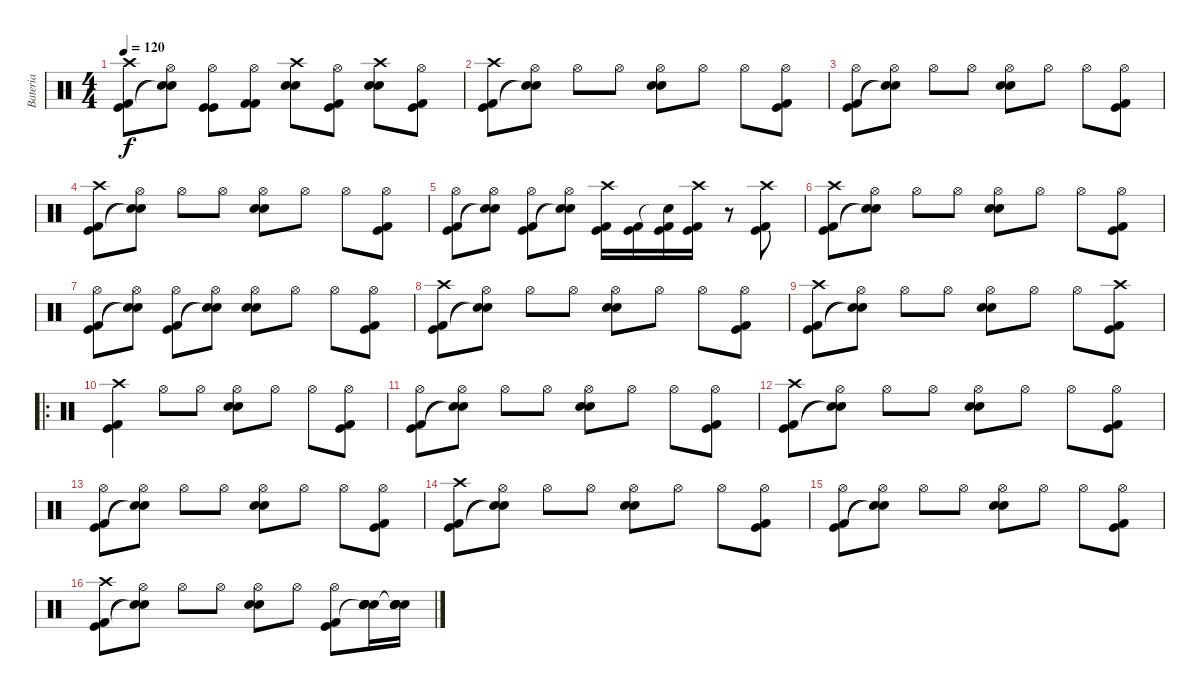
\track ("Bateria" "Bateria") {instrument percussion}
\staff {score}
\articulation defaults
\ts (4 4)
\tempo 120
\clef neutral
\ks c
("Crash high (hit)" "Kick (hit)" "Kick (hit) 2").8{dy f} ("Hi-Hat (open)" "Snare (hit)"{t} "Snare (hit)"{t}).8 ("Hi-Hat (open)" "Kick (hit)" "Kick (hit)").8 ("Hi-Hat (open)" "Kick (hit) 2" "Kick (hit) 2").8 ("Crash high (hit)" "Electric Snare (hit)" "Snare (hit) 2").8 ("Hi-Hat (open)" "Kick (hit)" "Kick (hit) 2").8 ("Crash high (hit)" "Electric Snare (hit)" "Snare (hit) 2").8 ("Hi-Hat (open)" "Kick (hit)" "Kick (hit) 2").8 |
("Crash high (hit)" "Kick (hit)" "Kick (hit) 2").8 ("Hi-Hat (open)" "Snare (hit)"{t} "Snare (hit)"{t}).8 "Hi-Hat (open)".8 "Hi-Hat (open)".8 ("Hi-Hat (open)" "Electric Snare (hit)" "Snare (hit) 2").8 "Hi-Hat (open)".8 "Hi-Hat (open)".8 ("Hi-Hat (open)" "Kick (hit)" "Kick (hit) 2").8 |
("Hi-Hat (open)" "Kick (hit)" "Kick (hit) 2").8 ("Hi-Hat (open)" "Snare (hit)"{t} "Snare (hit)"{t}).8 "Hi-Hat (open)".8 "Hi-Hat (open)".8 ("Hi-Hat (open)" "Electric Snare (hit)" "Snare (hit) 2").8 "Hi-Hat (open)".8 "Hi-Hat (open)".8 ("Hi-Hat (open)" "Kick (hit)" "Kick (hit) 2").8 |
("Crash high (hit)" "Kick (hit)" "Kick (hit) 2").8 ("Hi-Hat (open)" "Snare (hit)"{t} "Snare (hit)"{t}).8 "Hi-Hat (open)".8 "Hi-Hat (open)".8 ("Hi-Hat (open)" "Electric Snare (hit)" "Snare (hit) 2").8 "Hi-Hat (open)".8 "Hi-Hat (open)".8 ("Hi-Hat (open)" "Kick (hit)" "Kick (hit) 2").8 |
("Hi-Hat (open)" "Kick (hit) 2" "Kick (hit)").8 ("Hi-Hat (open)" "Snare (hit)"{t} "Snare (hit)"{t}).8 ("Hi-Hat (open)" "Kick (hit) 2" "Kick (hit)").8 ("Hi-Hat (open)" "Snare (hit)"{t} "Snare (hit)"{t}).8 ("Crash high (hit)" "Kick (hit) 2" "Kick (hit)").16 ("Kick (hit) 2" "Kick (hit)").16 ("Snare (hit)"{t} "Kick (hit) 2" "Kick (hit)").16 ("Crash high (hit)" "Kick (hit) 2" "Kick (hit)").16 r.8 ("Crash high (hit)" "Kick (hit)" "Kick (hit) 2").8 |
("Crash high (hit)" "Kick (hit)" "Kick (hit) 2").8 ("Hi-Hat (open)" "Snare (hit)"{t} "Snare (hit)"{t}).8 "Hi-Hat (open)".8 "Hi-Hat (open)".8 ("Hi-Hat (open)" "Electric Snare (hit)" "Snare (hit) 2").8 "Hi-Hat (open)".8 "Hi-Hat (open)".8 ("Hi-Hat (open)" "Kick (hit)" "Kick (hit) 2").8 |
("Hi-Hat (open)" "Kick (hit)" "Kick (hit) 2").8 ("Hi-Hat (open)" "Snare (hit)"{t} "Snare (hit)"{t}).8 ("Hi-Hat (open)" "Kick (hit)" "Kick (hit) 2").8 ("Hi-Hat (open)" "Snare (hit)"{t} "Snare (hit)"{t}).8 ("Hi-Hat (open)" "Electric Snare (hit)" "Snare (hit) 2").8 "Hi-Hat (open)".8 "Hi-Hat (open)".8 ("Hi-Hat (open)" "Kick (hit)" "Kick (hit) 2").8 |
("Crash high (hit)" "Kick (hit)" "Kick (hit) 2").8 ("Hi-Hat (open)" "Snare (hit)"{t} "Snare (hit)"{t}).8 "Hi-Hat (open)".8 "Hi-Hat (open)".8 ("Hi-Hat (open)" "Electric Snare (hit)" "Snare (hit) 2").8 "Hi-Hat (open)".8 "Hi-Hat (open)".8 ("Hi-Hat (open)" "Kick (hit)" "Kick (hit) 2").8 |
("Crash high (hit)" "Kick (hit)" "Kick (hit) 2").8 ("Hi-Hat (open)" "Snare (hit)"{t} "Snare (hit)"{t}).8 "Hi-Hat (open)".8 "Hi-Hat (open)".8 ("Hi-Hat (open)" "Electric Snare (hit)" "Snare (hit) 2").8 "Hi-Hat (open)".8 "Hi-Hat (open)".8 ("Crash high (hit)" "Kick (hit)" "Kick (hit) 2").8 |
\ro
("Crash high (hit)" "Kick (hit) 2" "Kick (hit)").4 "Hi-Hat (open)".8 "Hi-Hat (open)".8 ("Hi-Hat (open)" "Electric Snare (hit)" "Snare (hit) 2").8 "Hi-Hat (open)".8 "Hi-Hat (open)".8 ("Hi-Hat (open)" "Kick (hit)" "Kick (hit) 2").8 |
("Hi-Hat (open)" "Kick (hit) 2" "Kick (hit)").8 ("Hi-Hat (open)" "Snare (hit)"{t} "Snare (hit)"{t}).8 "Hi-Hat (open)".8 "Hi-Hat (open)".8 ("Hi-Hat (open)" "Electric Snare (hit)" "Snare (hit) 2").8 "Hi-Hat (open)".8 "Hi-Hat (open)".8 ("Hi-Hat (open)" "Kick (hit)" "Kick (hit) 2").8 |
("Crash high (hit)" "Kick (hit) 2" "Kick (hit)").8 ("Hi-Hat (open)" "Snare (hit)"{t} "Snare (hit)"{t}).8 "Hi-Hat (open)".8 "Hi-Hat (open)".8 ("Hi-Hat (open)" "Electric Snare (hit)" "Snare (hit) 2").8 "Hi-Hat (open)".8 "Hi-Hat (open)".8 ("Hi-Hat (open)" "Kick (hit)" "Kick (hit) 2").8 |
("Hi-Hat (open)" "Kick (hit) 2" "Kick (hit)").8 ("Hi-Hat (open)" "Snare (hit)"{t} "Snare (hit)"{t}).8 "Hi-Hat (open)".8 "Hi-Hat (open)".8 ("Hi-Hat (open)" "Electric Snare (hit)" "Snare (hit) 2").8 "Hi-Hat (open)".8 "Hi-Hat (open)".8 ("Hi-Hat (open)" "Kick (hit)" "Kick (hit) 2").8 |
("Crash high (hit)" "Kick (hit) 2" "Kick (hit)").8 ("Hi-Hat (open)" "Snare (hit)"{t} "Snare (hit)"{t}).8 "Hi-Hat (open)".8 "Hi-Hat (open)".8 ("Hi-Hat (open)" "Electric Snare (hit)" "Snare (hit) 2").8 "Hi-Hat (open)".8 "Hi-Hat (open)".8 ("Hi-Hat (open)" "Kick (hit)" "Kick (hit) 2").8 |
("Hi-Hat (open)" "Kick (hit) 2" "Kick (hit)").8 ("Hi-Hat (open)" "Snare (hit)"{t} "Snare (hit)"{t}).8 "Hi-Hat (open)".8 "Hi-Hat (open)".8 ("Hi-Hat (open)" "Electric Snare (hit)" "Snare (hit) 2").8 "Hi-Hat (open)".8 "Hi-Hat (open)".8 ("Hi-Hat (open)" "Kick (hit)" "Kick (hit) 2").8 |
("Crash high (hit)" "Kick (hit)" "Kick (hit) 2").8 ("Hi-Hat (open)" "Snare (hit)"{t} "Snare (hit)"{t}).8 "Hi-Hat (open)".8 "Hi-Hat (open)".8 ("Hi-Hat (open)" "Electric Snare (hit)" "Snare (hit) 2").8 "Hi-Hat (open)".8 ("Hi-Hat (open)" "Kick (hit)" "Kick (hit) 2").8 ("Electric Snare (hit)" "Snare (hit) 2" "Snare (hit)"{t} "Snare (hit)").16 ("Electric Snare (hit)" "Snare (hit) 2" "Snare (hit)"{t} "Snare (hit)"{t}).16
